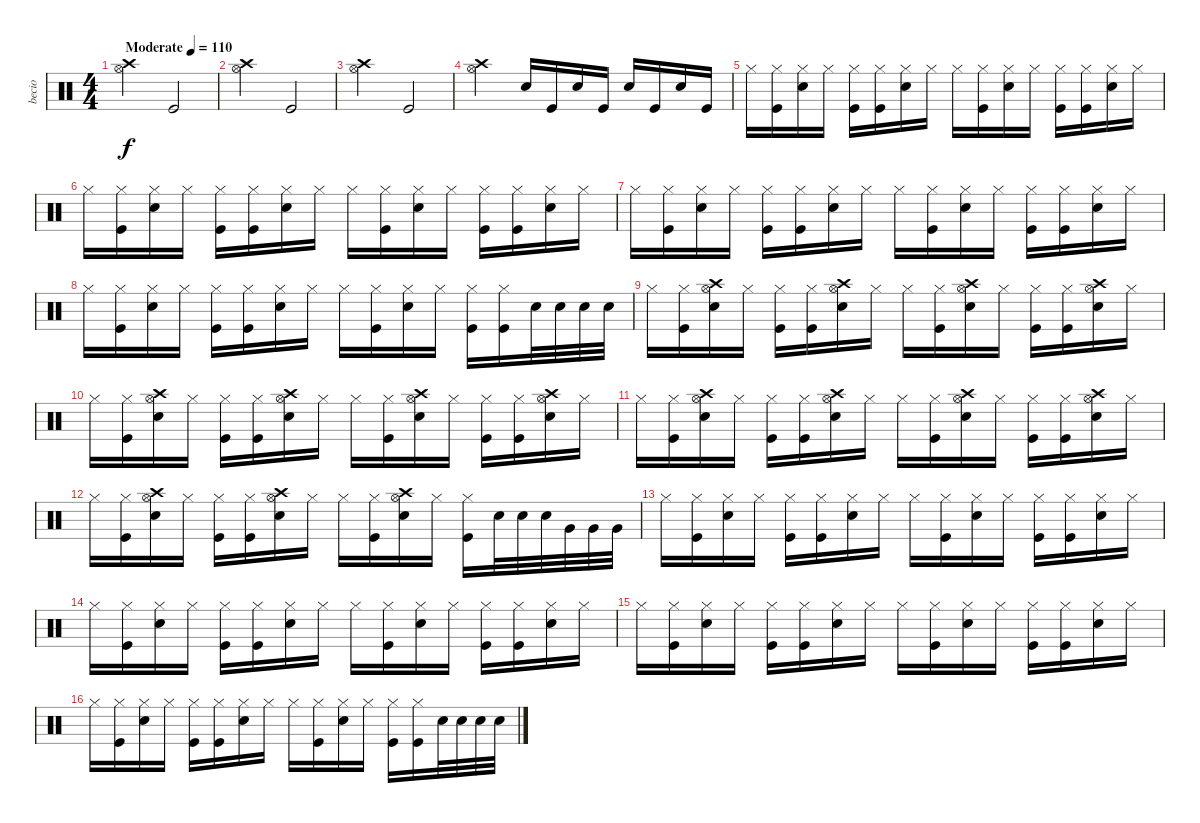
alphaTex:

\track ("becio" "becio") {instrument percussion}
\staff {score}
\articulation defaults
\ts (4 4)
\tempo (110 "Moderate")
\clef neutral
\ks c
("Hi-Hat (open)" "Crash high (hit)").2{dy f} "Kick (hit)".2 |
("Hi-Hat (open)" "Crash high (hit)").2 "Kick (hit)".2 |
("Hi-Hat (open)" "Crash high (hit)").2 "Kick (hit)".2 |
("Hi-Hat (open)" "Crash high (hit)").2 "Snare (hit) 2".16 "Kick (hit)".16 "Snare (hit) 2".16 "Kick (hit)".16 "Snare (hit) 2".16 "Kick (hit)".16 "Snare (hit) 2".16 "Kick (hit)".16 |
"Hi-Hat (closed)".16 ("Kick (hit)" "Hi-Hat (closed)").16 ("Snare (hit) 2" "Hi-Hat (closed)").16 "Hi-Hat (closed)".16 ("Kick (hit)" "Hi-Hat (closed)").16 ("Kick (hit)" "Hi-Hat (closed)").16 ("Snare (hit) 2" "Hi-Hat (closed)").16 "Hi-Hat (closed)".16 "Hi-Hat (closed)".16 ("Kick (hit)" "Hi-Hat (closed)").16 ("Snare (hit) 2" "Hi-Hat (closed)").16 "Hi-Hat (closed)".16 ("Kick (hit)" "Hi-Hat (closed)").16 ("Kick (hit)" "Hi-Hat (closed)").16 ("Snare (hit) 2" "Hi-Hat (closed)").16 "Hi-Hat (closed)".16 |
"Hi-Hat (closed)".16 ("Kick (hit)" "Hi-Hat (closed)").16 ("Snare (hit) 2" "Hi-Hat (closed)").16 "Hi-Hat (closed)".16 ("Kick (hit)" "Hi-Hat (closed)").16 ("Kick (hit)" "Hi-Hat (closed)").16 ("Snare (hit) 2" "Hi-Hat (closed)").16 "Hi-Hat (closed)".16 "Hi-Hat (closed)".16 ("Kick (hit)" "Hi-Hat (closed)").16 ("Snare (hit) 2" "Hi-Hat (closed)").16 "Hi-Hat (closed)".16 ("Kick (hit)" "Hi-Hat (closed)").16 ("Kick (hit)" "Hi-Hat (closed)").16 ("Snare (hit) 2" "Hi-Hat (closed)").16 "Hi-Hat (closed)".16 |
"Hi-Hat (closed)".16 ("Kick (hit)" "Hi-Hat (closed)").16 ("Snare (hit) 2" "Hi-Hat (closed)").16 "Hi-Hat (closed)".16 ("Kick (hit)" "Hi-Hat (closed)").16 ("Kick (hit)" "Hi-Hat (closed)").16 ("Snare (hit) 2" "Hi-Hat (closed)").16 "Hi-Hat (closed)".16 "Hi-Hat (closed)".16 ("Kick (hit)" "Hi-Hat (closed)").16 ("Snare (hit) 2" "Hi-Hat (closed)").16 "Hi-Hat (closed)".16 ("Kick (hit)" "Hi-Hat (closed)").16 ("Kick (hit)" "Hi-Hat (closed)").16 ("Snare (hit) 2" "Hi-Hat (closed)").16 "Hi-Hat (closed)".16 |
"Hi-Hat (closed)".16 ("Kick (hit)" "Hi-Hat (closed)").16 ("Snare (hit) 2" "Hi-Hat (closed)").16 "Hi-Hat (closed)".16 ("Kick (hit)" "Hi-Hat (closed)").16 ("Kick (hit)" "Hi-Hat (closed)").16 ("Snare (hit) 2" "Hi-Hat (closed)").16 "Hi-Hat (closed)".16 "Hi-Hat (closed)".16 ("Kick (hit)" "Hi-Hat (closed)").16 ("Snare (hit) 2" "Hi-Hat (closed)").16 "Hi-Hat (closed)".16 ("Kick (hit)" "Hi-Hat (closed)").16 ("Kick (hit)" "Hi-Hat (closed)").16 "Snare (hit) 2".32 "Snare (hit) 2".32 "Snare (hit) 2".32 "Snare (hit) 2".32 |
"Hi-Hat (closed)".16 ("Kick (hit)" "Hi-Hat (closed)").16 ("Snare (hit) 2" "Hi-Hat (open)" "Crash high (hit)").16 "Hi-Hat (closed)".16 ("Kick (hit)" "Hi-Hat (closed)").16 ("Kick (hit)" "Hi-Hat (closed)").16 ("Snare (hit) 2" "Hi-Hat (open)" "Crash high (hit)").16 "Hi-Hat (closed)".16 "Hi-Hat (closed)".16 ("Kick (hit)" "Hi-Hat (closed)").16 ("Snare (hit) 2" "Hi-Hat (open)" "Crash high (hit)").16 "Hi-Hat (closed)".16 ("Kick (hit)" "Hi-Hat (closed)").16 ("Kick (hit)" "Hi-Hat (closed)").16 ("Snare (hit) 2" "Hi-Hat (open)" "Crash high (hit)").16 "Hi-Hat (closed)".16 |
"Hi-Hat (closed)".16 ("Kick (hit)" "Hi-Hat (closed)").16 ("Snare (hit) 2" "Hi-Hat (open)" "Crash high (hit)").16 "Hi-Hat (closed)".16 ("Kick (hit)" "Hi-Hat (closed)").16 ("Kick (hit)" "Hi-Hat (closed)").16 ("Snare (hit) 2" "Hi-Hat (open)" "Crash high (hit)").16 "Hi-Hat (closed)".16 "Hi-Hat (closed)".16 ("Kick (hit)" "Hi-Hat (closed)").16 ("Snare (hit) 2" "Hi-Hat (open)" "Crash high (hit)").16 "Hi-Hat (closed)".16 ("Kick (hit)" "Hi-Hat (closed)").16 ("Kick (hit)" "Hi-Hat (closed)").16 ("Snare (hit) 2" "Hi-Hat (open)" "Crash high (hit)").16 "Hi-Hat (closed)".16 |
"Hi-Hat (closed)".16 ("Kick (hit)" "Hi-Hat (closed)").16 ("Snare (hit) 2" "Hi-Hat (open)" "Crash high (hit)").16 "Hi-Hat (closed)".16 ("Kick (hit)" "Hi-Hat (closed)").16 ("Kick (hit)" "Hi-Hat (closed)").16 ("Snare (hit) 2" "Hi-Hat (open)" "Crash high (hit)").16 "Hi-Hat (closed)".16 "Hi-Hat (closed)".16 ("Kick (hit)" "Hi-Hat (closed)").16 ("Snare (hit) 2" "Hi-Hat (open)" "Crash high (hit)").16 "Hi-Hat (closed)".16 ("Kick (hit)" "Hi-Hat (closed)").16 ("Kick (hit)" "Hi-Hat (closed)").16 ("Snare (hit) 2" "Hi-Hat (open)" "Crash high (hit)").16 "Hi-Hat (closed)".16 |
"Hi-Hat (closed)".16 ("Kick (hit)" "Hi-Hat (closed)").16 ("Snare (hit) 2" "Hi-Hat (open)" "Crash high (hit)").16 "Hi-Hat (closed)".16 ("Kick (hit)" "Hi-Hat (closed)").16 ("Kick (hit)" "Hi-Hat (closed)").16 ("Snare (hit) 2" "Hi-Hat (open)" "Crash high (hit)").16 "Hi-Hat (closed)".16 "Hi-Hat (closed)".16 ("Kick (hit)" "Hi-Hat (closed)").16 ("Snare (hit) 2" "Hi-Hat (open)" "Crash high (hit)").16 "Hi-Hat (closed)".16 ("Kick (hit)" "Hi-Hat (closed)").16 "Snare (hit) 2".32 "Snare (hit) 2".32 "Snare (hit) 2".32 "Very Low Tom (hit)".32 "Very Low Tom (hit)".32 "Very Low Tom (hit)".32 |
"Hi-Hat (closed)".16 ("Kick (hit)" "Hi-Hat (closed)").16 ("Snare (hit) 2" "Hi-Hat (closed)").16 "Hi-Hat (closed)".16 ("Kick (hit)" "Hi-Hat (closed)").16 ("Kick (hit)" "Hi-Hat (closed)").16 ("Snare (hit) 2" "Hi-Hat (closed)").16 "Hi-Hat (closed)".16 "Hi-Hat (closed)".16 ("Kick (hit)" "Hi-Hat (closed)").16 ("Snare (hit) 2" "Hi-Hat (closed)").16 "Hi-Hat (closed)".16 ("Kick (hit)" "Hi-Hat (closed)").16 ("Kick (hit)" "Hi-Hat (closed)").16 ("Snare (hit) 2" "Hi-Hat (closed)").16 "Hi-Hat (closed)".16 |
"Hi-Hat (closed)".16 ("Kick (hit)" "Hi-Hat (closed)").16 ("Snare (hit) 2" "Hi-Hat (closed)").16 "Hi-Hat (closed)".16 ("Kick (hit)" "Hi-Hat (closed)").16 ("Kick (hit)" "Hi-Hat (closed)").16 ("Snare (hit) 2" "Hi-Hat (closed)").16 "Hi-Hat (closed)".16 "Hi-Hat (closed)".16 ("Kick (hit)" "Hi-Hat (closed)").16 ("Snare (hit) 2" "Hi-Hat (closed)").16 "Hi-Hat (closed)".16 ("Kick (hit)" "Hi-Hat (closed)").16 ("Kick (hit)" "Hi-Hat (closed)").16 ("Snare (hit) 2" "Hi-Hat (closed)").16 "Hi-Hat (closed)".16 |
"Hi-Hat (closed)".16 ("Kick (hit)" "Hi-Hat (closed)").16 ("Snare (hit) 2" "Hi-Hat (closed)").16 "Hi-Hat (closed)".16 ("Kick (hit)" "Hi-Hat (closed)").16 ("Kick (hit)" "Hi-Hat (closed)").16 ("Snare (hit) 2" "Hi-Hat (closed)").16 "Hi-Hat (closed)".16 "Hi-Hat (closed)".16 ("Kick (hit)" "Hi-Hat (closed)").16 ("Snare (hit) 2" "Hi-Hat (closed)").16 "Hi-Hat (closed)".16 ("Kick (hit)" "Hi-Hat (closed)").16 ("Kick (hit)" "Hi-Hat (closed)").16 ("Snare (hit) 2" "Hi-Hat (closed)").16 "Hi-Hat (closed)".16 |
"Hi-Hat (closed)".16 ("Kick (hit)" "Hi-Hat (closed)").16 ("Snare (hit) 2" "Hi-Hat (closed)").16 "Hi-Hat (closed)".16 ("Kick (hit)" "Hi-Hat (closed)").16 ("Kick (hit)" "Hi-Hat (closed)").16 ("Snare (hit) 2" "Hi-Hat (closed)").16 "Hi-Hat (closed)".16 "Hi-Hat (closed)".16 ("Kick (hit)" "Hi-Hat (closed)").16 ("Snare (hit) 2" "Hi-Hat (closed)").16 "Hi-Hat (closed)".16 ("Kick (hit)" "Hi-Hat (closed)").16 ("Kick (hit)" "Hi-Hat (closed)").16 "Snare (hit) 2".32 "Snare (hit) 2".32 "Snare (hit) 2".32 "Snare (hit) 2".32
